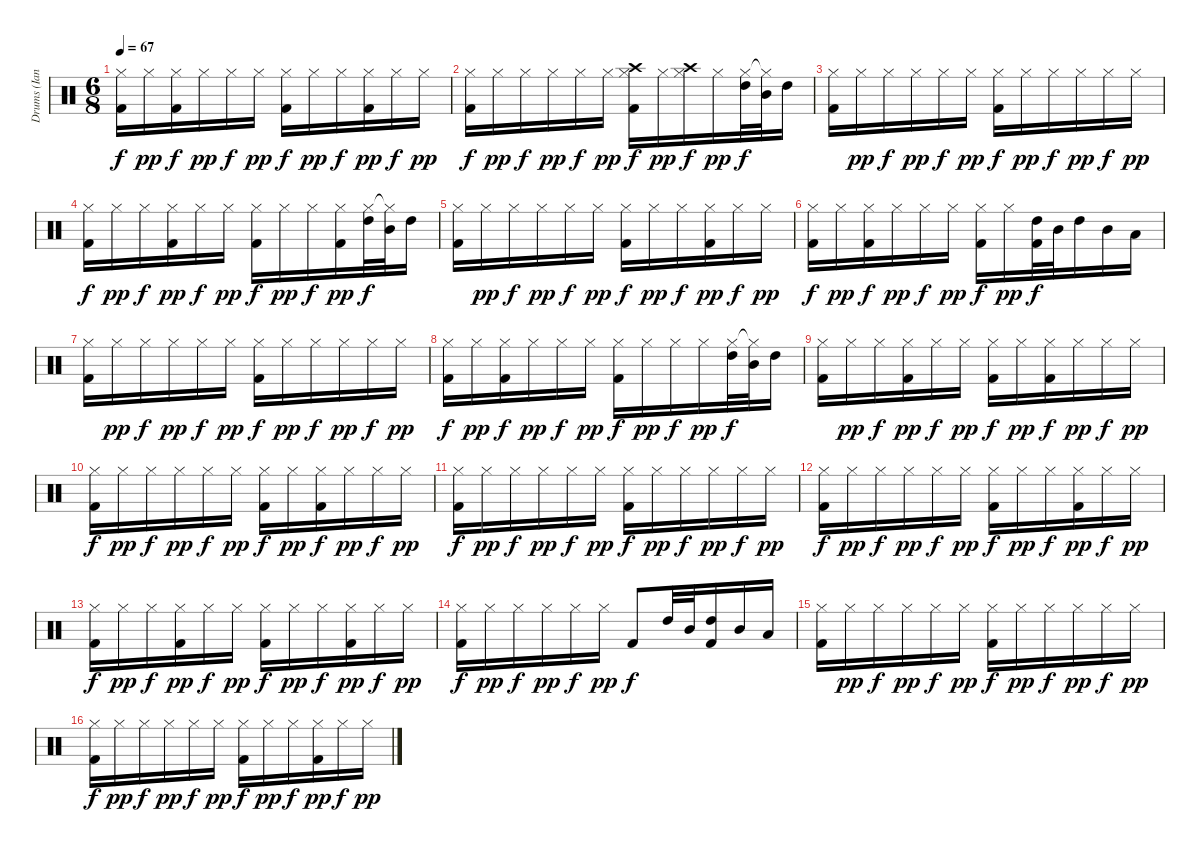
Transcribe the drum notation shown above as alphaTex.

\track ("Drums (Ian Mosley)" "Drums (Ian") {instrument percussion}
\staff {score}
\articulation defaults
\ts (6 8)
\tempo 67
\clef neutral
\ks c
("Kick (hit) 2" "Hi-Hat (closed)").16{dy f} "Hi-Hat (closed)".16{dy pp} ("Kick (hit) 2" "Hi-Hat (closed)").16{dy f} "Hi-Hat (closed)".16{dy pp} "Hi-Hat (closed)".16{dy f} "Hi-Hat (closed)".16{dy pp} ("Kick (hit) 2" "Hi-Hat (closed)").16{dy f} "Hi-Hat (closed)".16{dy pp} "Hi-Hat (closed)".16{dy f} ("Kick (hit) 2" "Hi-Hat (closed)").16{dy pp} "Hi-Hat (closed)".16{dy f} "Hi-Hat (closed)".16{dy pp} |
("Kick (hit) 2" "Hi-Hat (closed)").16{dy f} "Hi-Hat (closed)".16{dy pp} "Hi-Hat (closed)".16{dy f} "Hi-Hat (closed)".16{dy pp} "Hi-Hat (closed)".16{dy f} "Hi-Hat (closed)".16{dy pp} ("Crash high (hit)" "Kick (hit) 2" "Hi-Hat (closed)").16{dy f} "Hi-Hat (closed)".16{dy pp} ("Crash high (hit)" "Hi-Hat (closed)").16{dy f} "Hi-Hat (closed)".16{dy pp} ("High Tom (hit)" "Hi-Hat (closed)").32{dy f} ("Mid Tom (hit)" "Hi-Hat (closed)"{t}).32 "High Tom (hit)".16 |
("Kick (hit) 2" "Hi-Hat (closed)").16 "Hi-Hat (closed)".16{dy pp} "Hi-Hat (closed)".16{dy f} "Hi-Hat (closed)".16{dy pp} "Hi-Hat (closed)".16{dy f} "Hi-Hat (closed)".16{dy pp} ("Kick (hit) 2" "Hi-Hat (closed)").16{dy f} "Hi-Hat (closed)".16{dy pp} "Hi-Hat (closed)".16{dy f} "Hi-Hat (closed)".16{dy pp} "Hi-Hat (closed)".16{dy f} "Hi-Hat (closed)".16{dy pp} |
("Kick (hit) 2" "Hi-Hat (closed)").16{dy f} "Hi-Hat (closed)".16{dy pp} "Hi-Hat (closed)".16{dy f} ("Kick (hit) 2" "Hi-Hat (closed)").16{dy pp} "Hi-Hat (closed)".16{dy f} "Hi-Hat (closed)".16{dy pp} ("Kick (hit) 2" "Hi-Hat (closed)").16{dy f} "Hi-Hat (closed)".16{dy pp} "Hi-Hat (closed)".16{dy f} ("Kick (hit) 2" "Hi-Hat (closed)").16{dy pp} ("High Tom (hit)" "Hi-Hat (closed)").32{dy f} ("Mid Tom (hit)" "Hi-Hat (closed)"{t}).32 "High Tom (hit)".16 |
("Kick (hit) 2" "Hi-Hat (closed)").16 "Hi-Hat (closed)".16{dy pp} "Hi-Hat (closed)".16{dy f} "Hi-Hat (closed)".16{dy pp} "Hi-Hat (closed)".16{dy f} "Hi-Hat (closed)".16{dy pp} ("Kick (hit) 2" "Hi-Hat (closed)").16{dy f} "Hi-Hat (closed)".16{dy pp} "Hi-Hat (closed)".16{dy f} ("Kick (hit) 2" "Hi-Hat (closed)").16{dy pp} "Hi-Hat (closed)".16{dy f} "Hi-Hat (closed)".16{dy pp} |
("Kick (hit) 2" "Hi-Hat (closed)").16{dy f} "Hi-Hat (closed)".16{dy pp} ("Kick (hit) 2" "Hi-Hat (closed)").16{dy f} "Hi-Hat (closed)".16{dy pp} "Hi-Hat (closed)".16{dy f} "Hi-Hat (closed)".16{dy pp} ("Kick (hit) 2" "Hi-Hat (closed)").16{dy f} "Hi-Hat (closed)".16{dy pp} ("High Tom (hit)" "Kick (hit) 2").32{dy f} "Mid Tom (hit)".32 "High Tom (hit)".16 "Mid Tom (hit)".16 "Low Tom (hit)".16 |
("Kick (hit) 2" "Hi-Hat (closed)").16 "Hi-Hat (closed)".16{dy pp} "Hi-Hat (closed)".16{dy f} "Hi-Hat (closed)".16{dy pp} "Hi-Hat (closed)".16{dy f} "Hi-Hat (closed)".16{dy pp} ("Kick (hit) 2" "Hi-Hat (closed)").16{dy f} "Hi-Hat (closed)".16{dy pp} "Hi-Hat (closed)".16{dy f} "Hi-Hat (closed)".16{dy pp} "Hi-Hat (closed)".16{dy f} "Hi-Hat (closed)".16{dy pp} |
("Kick (hit) 2" "Hi-Hat (closed)").16{dy f} "Hi-Hat (closed)".16{dy pp} ("Kick (hit) 2" "Hi-Hat (closed)").16{dy f} "Hi-Hat (closed)".16{dy pp} "Hi-Hat (closed)".16{dy f} "Hi-Hat (closed)".16{dy pp} ("Kick (hit) 2" "Hi-Hat (closed)").16{dy f} "Hi-Hat (closed)".16{dy pp} "Hi-Hat (closed)".16{dy f} "Hi-Hat (closed)".16{dy pp} ("High Tom (hit)" "Hi-Hat (closed)").32{dy f} ("Mid Tom (hit)" "Hi-Hat (closed)"{t}).32 "High Tom (hit)".16 |
("Kick (hit) 2" "Hi-Hat (closed)").16 "Hi-Hat (closed)".16{dy pp} "Hi-Hat (closed)".16{dy f} ("Kick (hit) 2" "Hi-Hat (closed)").16{dy pp} "Hi-Hat (closed)".16{dy f} "Hi-Hat (closed)".16{dy pp} ("Kick (hit) 2" "Hi-Hat (closed)").16{dy f} "Hi-Hat (closed)".16{dy pp} ("Kick (hit) 2" "Hi-Hat (closed)").16{dy f} "Hi-Hat (closed)".16{dy pp} "Hi-Hat (closed)".16{dy f} "Hi-Hat (closed)".16{dy pp} |
("Kick (hit) 2" "Hi-Hat (closed)").16{dy f} "Hi-Hat (closed)".16{dy pp} "Hi-Hat (closed)".16{dy f} "Hi-Hat (closed)".16{dy pp} "Hi-Hat (closed)".16{dy f} "Hi-Hat (closed)".16{dy pp} ("Kick (hit) 2" "Hi-Hat (closed)").16{dy f} "Hi-Hat (closed)".16{dy pp} ("Kick (hit) 2" "Hi-Hat (closed)").16{dy f} "Hi-Hat (closed)".16{dy pp} "Hi-Hat (closed)".16{dy f} "Hi-Hat (closed)".16{dy pp} |
("Kick (hit) 2" "Hi-Hat (closed)").16{dy f} "Hi-Hat (closed)".16{dy pp} "Hi-Hat (closed)".16{dy f} "Hi-Hat (closed)".16{dy pp} "Hi-Hat (closed)".16{dy f} "Hi-Hat (closed)".16{dy pp} ("Kick (hit) 2" "Hi-Hat (closed)").16{dy f} "Hi-Hat (closed)".16{dy pp} "Hi-Hat (closed)".16{dy f} "Hi-Hat (closed)".16{dy pp} "Hi-Hat (closed)".16{dy f} "Hi-Hat (closed)".16{dy pp} |
("Kick (hit) 2" "Hi-Hat (closed)").16{dy f} "Hi-Hat (closed)".16{dy pp} "Hi-Hat (closed)".16{dy f} "Hi-Hat (closed)".16{dy pp} "Hi-Hat (closed)".16{dy f} "Hi-Hat (closed)".16{dy pp} ("Kick (hit) 2" "Hi-Hat (closed)").16{dy f} "Hi-Hat (closed)".16{dy pp} "Hi-Hat (closed)".16{dy f} ("Kick (hit) 2" "Hi-Hat (closed)").16{dy pp} "Hi-Hat (closed)".16{dy f} "Hi-Hat (closed)".16{dy pp} |
("Kick (hit) 2" "Hi-Hat (closed)").16{dy f} "Hi-Hat (closed)".16{dy pp} "Hi-Hat (closed)".16{dy f} ("Kick (hit) 2" "Hi-Hat (closed)").16{dy pp} "Hi-Hat (closed)".16{dy f} "Hi-Hat (closed)".16{dy pp} ("Kick (hit) 2" "Hi-Hat (closed)").16{dy f} "Hi-Hat (closed)".16{dy pp} "Hi-Hat (closed)".16{dy f} ("Kick (hit) 2" "Hi-Hat (closed)").16{dy pp} "Hi-Hat (closed)".16{dy f} "Hi-Hat (closed)".16{dy pp} |
("Kick (hit) 2" "Hi-Hat (closed)").16{dy f} "Hi-Hat (closed)".16{dy pp} "Hi-Hat (closed)".16{dy f} "Hi-Hat (closed)".16{dy pp} "Hi-Hat (closed)".16{dy f} "Hi-Hat (closed)".16{dy pp} "Kick (hit) 2".8{dy f} "High Tom (hit)".32 "Mid Tom (hit)".32 ("High Tom (hit)" "Kick (hit) 2").16 "Mid Tom (hit)".16 "Low Tom (hit)".16 |
("Kick (hit) 2" "Hi-Hat (closed)").16 "Hi-Hat (closed)".16{dy pp} "Hi-Hat (closed)".16{dy f} "Hi-Hat (closed)".16{dy pp} "Hi-Hat (closed)".16{dy f} "Hi-Hat (closed)".16{dy pp} ("Kick (hit) 2" "Hi-Hat (closed)").16{dy f} "Hi-Hat (closed)".16{dy pp} "Hi-Hat (closed)".16{dy f} "Hi-Hat (closed)".16{dy pp} "Hi-Hat (closed)".16{dy f} "Hi-Hat (closed)".16{dy pp} |
("Kick (hit) 2" "Hi-Hat (closed)").16{dy f} "Hi-Hat (closed)".16{dy pp} "Hi-Hat (closed)".16{dy f} "Hi-Hat (closed)".16{dy pp} "Hi-Hat (closed)".16{dy f} "Hi-Hat (closed)".16{dy pp} ("Kick (hit) 2" "Hi-Hat (closed)").16{dy f} "Hi-Hat (closed)".16{dy pp} "Hi-Hat (closed)".16{dy f} ("Kick (hit) 2" "Hi-Hat (closed)").16{dy pp} "Hi-Hat (closed)".16{dy f} "Hi-Hat (closed)".16{dy pp}
